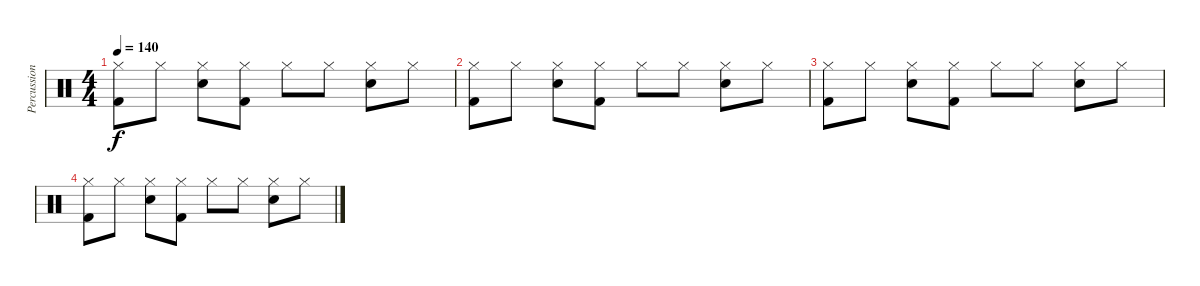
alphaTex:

\track ("Percussion" "Percussion") {instrument percussion}
\staff {score}
\articulation defaults
\ts (4 4)
\tempo 140
\clef neutral
\ks c
("Hi-Hat (closed)" "Kick (hit) 2").8{dy f} "Hi-Hat (closed)".8 ("Hi-Hat (closed)" "Snare (hit) 2").8 ("Hi-Hat (closed)" "Kick (hit) 2").8 "Hi-Hat (closed)".8 "Hi-Hat (closed)".8 ("Hi-Hat (closed)" "Snare (hit) 2").8 "Hi-Hat (closed)".8 |
("Hi-Hat (closed)" "Kick (hit) 2").8 "Hi-Hat (closed)".8 ("Hi-Hat (closed)" "Snare (hit) 2").8 ("Hi-Hat (closed)" "Kick (hit) 2").8 "Hi-Hat (closed)".8 "Hi-Hat (closed)".8 ("Hi-Hat (closed)" "Snare (hit) 2").8 "Hi-Hat (closed)".8 |
("Hi-Hat (closed)" "Kick (hit) 2").8 "Hi-Hat (closed)".8 ("Hi-Hat (closed)" "Snare (hit) 2").8 ("Hi-Hat (closed)" "Kick (hit) 2").8 "Hi-Hat (closed)".8 "Hi-Hat (closed)".8 ("Hi-Hat (closed)" "Snare (hit) 2").8 "Hi-Hat (closed)".8 |
("Hi-Hat (closed)" "Kick (hit) 2").8 "Hi-Hat (closed)".8 ("Hi-Hat (closed)" "Snare (hit) 2").8 ("Hi-Hat (closed)" "Kick (hit) 2").8 "Hi-Hat (closed)".8 "Hi-Hat (closed)".8 ("Hi-Hat (closed)" "Snare (hit) 2").8 "Hi-Hat (closed)".8
